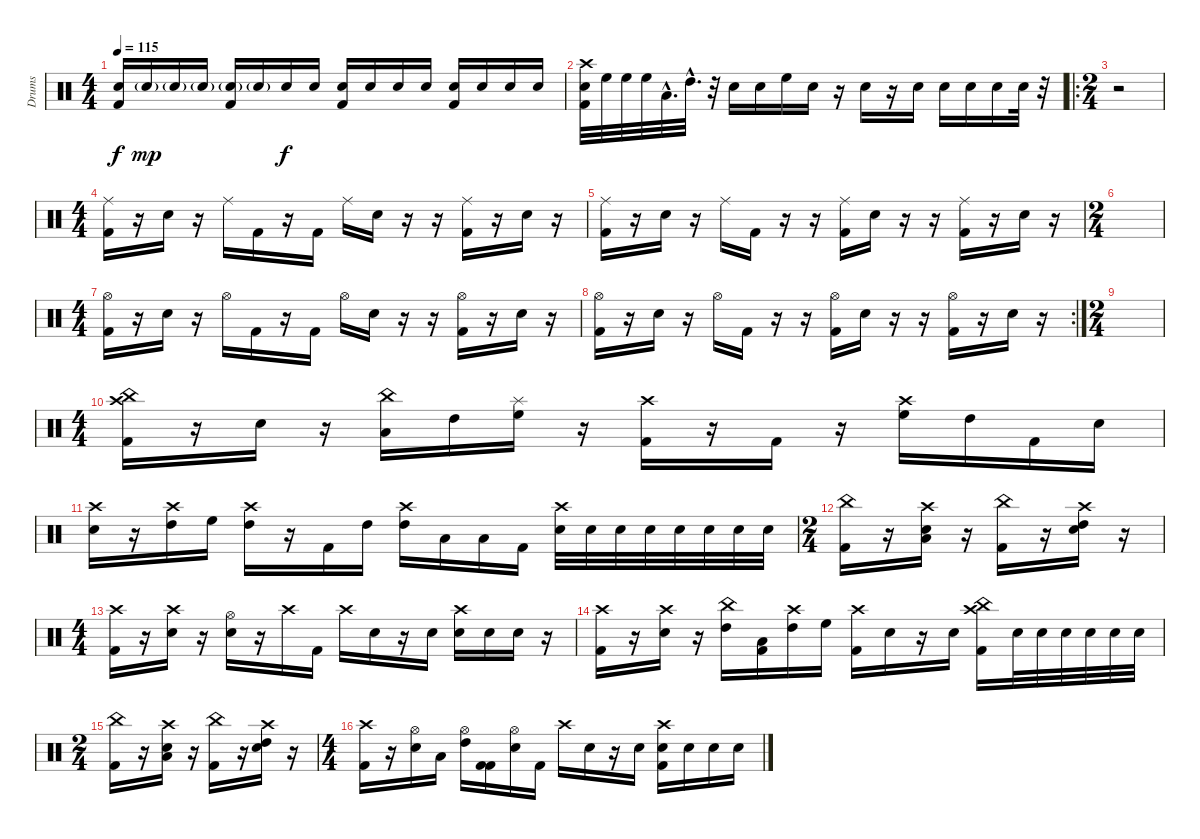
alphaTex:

\track ("Drums" "Drums") {instrument percussion}
\staff {score}
\articulation defaults
\ts (4 4)
\tempo 115
\clef neutral
\ks c
("Kick (hit) 2" "Electric Snare (hit)").16{dy f} "Electric Snare (hit)"{g}.16{dy mp} "Electric Snare (hit)"{g}.16 "Electric Snare (hit)"{g}.16 ("Kick (hit) 2" "Electric Snare (hit)"{g}).16 "Electric Snare (hit)"{g}.16 "Electric Snare (hit)".16{dy f} "Electric Snare (hit)".16 ("Electric Snare (hit)" "Kick (hit) 2").16 "Electric Snare (hit)".16 "Electric Snare (hit)".16 "Electric Snare (hit)".16 ("Electric Snare (hit)" "Kick (hit) 2").16 "Electric Snare (hit)".16 "Electric Snare (hit)".16 "Electric Snare (hit)".16 |
("Crash high (hit)" "Electric Snare (hit)" "Kick (hit) 2").32 "High Floor Tom (hit)".32 "High Floor Tom (hit)".32 "High Floor Tom (hit)".32 "Low Tom (hit)"{hac}.32{d} "High Tom (hit)"{hac}.32{d} r.32 "Electric Snare (hit)".16 "Electric Snare (hit)".16 "High Floor Tom (hit)".16 "Electric Snare (hit)".16 r.16 "Electric Snare (hit)".16 r.16 "Electric Snare (hit)".16 "Electric Snare (hit)".16 "Electric Snare (hit)".16 "Electric Snare (hit)".16 "Electric Snare (hit)".32 r.32 |
\ro
\ts (2 4)
r.2 |
\ts (4 4)
("Ride (middle)" "Kick (hit) 2").16 r.16 "Electric Snare (hit)".16 r.16 "Ride (middle)".16 "Kick (hit) 2".16 r.16 "Kick (hit) 2".16 "Ride (middle)".16 "Electric Snare (hit)".16 r.16 r.16 ("Ride (middle)" "Kick (hit) 2").16 r.16 "Electric Snare (hit)".16 r.16 |
("Ride (middle)" "Kick (hit) 2").16 r.16 "Electric Snare (hit)".16 r.16 "Ride (middle)".16 "Kick (hit) 2".16 r.16 r.16 ("Ride (middle)" "Kick (hit) 2").16 "Electric Snare (hit)".16 r.16 r.16 ("Ride (middle)" "Kick (hit) 2").16 r.16 "Electric Snare (hit)".16 r.16 |
\ts (2 4)
|
\ts (4 4)
("Hi-Hat (open)" "Kick (hit) 2").16 r.16 "Electric Snare (hit)".16 r.16 "Hi-Hat (open)".16 "Kick (hit) 2".16 r.16 "Kick (hit) 2".16 "Hi-Hat (open)".16 "Electric Snare (hit)".16 r.16 r.16 ("Hi-Hat (open)" "Kick (hit) 2").16 r.16 "Electric Snare (hit)".16 r.16 |
\rc 2
("Hi-Hat (open)" "Kick (hit) 2").16 r.16 "Electric Snare (hit)".16 r.16 "Hi-Hat (open)".16 "Kick (hit) 2".16 r.16 r.16 ("Hi-Hat (open)" "Kick (hit) 2").16 "Electric Snare (hit)".16 r.16 r.16 ("Hi-Hat (open)" "Kick (hit) 2").16 r.16 "Electric Snare (hit)".16 r.16 |
\ts (2 4)
|
\ts (4 4)
("Crash high (hit)" "China (hit)" "Kick (hit) 2").16 r.16 "Electric Snare (hit)".16 r.16 ("China (hit)" "Low Tom (hit)").16 "High Tom (hit)".16 ("Splash (hit)" "High Floor Tom (hit)").16 r.16 ("Crash high (hit)" "Kick (hit) 2").16 r.16 "Kick (hit) 2".16 r.16 ("Crash high (hit)" "High Floor Tom (hit)").16 "High Tom (hit)".16 "Kick (hit) 2".16 "Electric Snare (hit)".16 |
("Crash high (hit)" "Snare (hit) 2").16 r.16 ("Crash high (hit)" "High Tom (hit)").16 "High Floor Tom (hit)".16 ("Crash high (hit)" "High Tom (hit)").16 r.16 "Kick (hit) 2".16 "High Tom (hit)".16 ("Crash high (hit)" "High Tom (hit)").16 "Low Tom (hit)".16 "Low Tom (hit)".16 "Kick (hit) 2".16 ("Crash high (hit)" "Electric Snare (hit)").32 "Electric Snare (hit)".32 "Electric Snare (hit)".32 "Electric Snare (hit)".32 "Electric Snare (hit)".32 "Electric Snare (hit)".32 "Electric Snare (hit)".32 "Electric Snare (hit)".32 |
\ts (2 4)
("China (hit)" "Kick (hit) 2").16 r.16 ("Crash high (hit)" "Electric Snare (hit)" "Low Tom (hit)").16 r.16 ("China (hit)" "Kick (hit) 2").16 r.16 ("Crash high (hit)" "Electric Snare (hit)" "High Tom (hit)").16 r.16 |
\ts (4 4)
("Crash high (hit)" "Kick (hit) 2").16 r.16 ("Crash high (hit)" "Electric Snare (hit)").16 r.16 ("Hi-Hat (open)" "Electric Snare (hit)").16 r.16 "Crash high (hit)".16 "Kick (hit) 2".16 "Crash high (hit)".16 "Electric Snare (hit)".16 r.16 "Electric Snare (hit)".16 ("Crash high (hit)" "Electric Snare (hit)").16 "Electric Snare (hit)".16 "Electric Snare (hit)".16 r.16 |
("Crash high (hit)" "Kick (hit) 2").16 r.16 ("Crash high (hit)" "Electric Snare (hit)").16 r.16 ("China (hit)" "High Tom (hit)").16 ("Low Tom (hit)" "Kick (hit) 2").16 ("Crash high (hit)" "High Tom (hit)").16 "High Floor Tom (hit)".16 ("Crash high (hit)" "Kick (hit) 2").16 "Electric Snare (hit)".16 r.16 "Electric Snare (hit)".16 ("Crash high (hit)" "China (hit)" "Kick (hit) 2").16 "Electric Snare (hit)".32 "Electric Snare (hit)".32 "Electric Snare (hit)".32 "Electric Snare (hit)".32 "Electric Snare (hit)".32 "Electric Snare (hit)".32 |
\ts (2 4)
("China (hit)" "Kick (hit) 2").16 r.16 ("Crash high (hit)" "Electric Snare (hit)" "Low Tom (hit)").16 r.16 ("China (hit)" "Kick (hit) 2").16 r.16 ("Crash high (hit)" "Electric Snare (hit)" "High Tom (hit)").16 r.16 |
\ts (4 4)
("Crash high (hit)" "Kick (hit) 2").16 r.16 ("Hi-Hat (open)" "Electric Snare (hit)").16 "Low Tom (hit)".16 ("Hi-Hat (open)" "High Tom (hit)").16 ("Kick (hit) 2" "Kick (hit) 2").16 ("Hi-Hat (open)" "Electric Snare (hit)").16 "Kick (hit) 2".16 "Crash high (hit)".16 "Electric Snare (hit)".16 r.16 "Electric Snare (hit)".16 ("Crash high (hit)" "Electric Snare (hit)" "Kick (hit) 2").16 "Electric Snare (hit)".16 "Electric Snare (hit)".16 "Electric Snare (hit)".16
